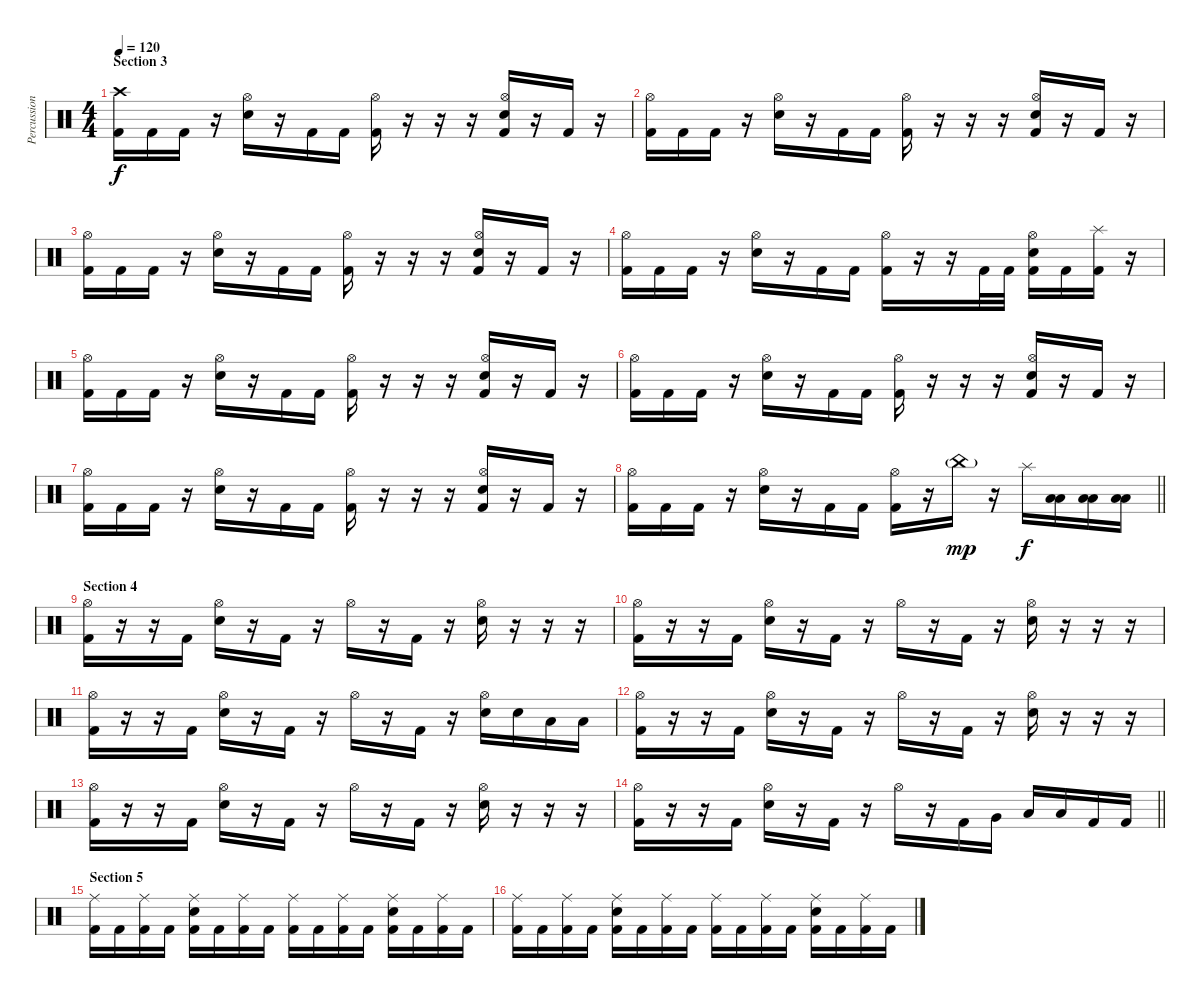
\track ("Percussion" "Percussion") {instrument percussion}
\staff {score}
\articulation defaults
\ts (4 4)
\section ("" "Section 3")
\tempo 120
\clef neutral
\ks c
("Crash high (hit)" "Kick (hit) 2").16{dy f} "Kick (hit) 2".16 "Kick (hit) 2".16 r.16 ("Hi-Hat (open)" "Electric Snare (hit)").16 r.16 "Kick (hit) 2".16 "Kick (hit) 2".16 ("Hi-Hat (open)" "Kick (hit) 2").16 r.16 r.16 r.16 ("Hi-Hat (open)" "Electric Snare (hit)" "Kick (hit) 2").16 r.16 "Kick (hit) 2".16 r.16 |
("Hi-Hat (open)" "Kick (hit) 2").16 "Kick (hit) 2".16 "Kick (hit) 2".16 r.16 ("Hi-Hat (open)" "Electric Snare (hit)").16 r.16 "Kick (hit) 2".16 "Kick (hit) 2".16 ("Hi-Hat (open)" "Kick (hit) 2").16 r.16 r.16 r.16 ("Hi-Hat (open)" "Electric Snare (hit)" "Kick (hit) 2").16 r.16 "Kick (hit) 2".16 r.16 |
("Hi-Hat (open)" "Kick (hit) 2").16 "Kick (hit) 2".16 "Kick (hit) 2".16 r.16 ("Hi-Hat (open)" "Electric Snare (hit)").16 r.16 "Kick (hit) 2".16 "Kick (hit) 2".16 ("Hi-Hat (open)" "Kick (hit) 2").16 r.16 r.16 r.16 ("Hi-Hat (open)" "Electric Snare (hit)" "Kick (hit) 2").16 r.16 "Kick (hit) 2".16 r.16 |
("Hi-Hat (open)" "Kick (hit) 2").16 "Kick (hit) 2".16 "Kick (hit) 2".16 r.16 ("Hi-Hat (open)" "Electric Snare (hit)").16 r.16 "Kick (hit) 2".16 "Kick (hit) 2".16 ("Hi-Hat (open)" "Kick (hit) 2").16 r.16 r.16 "Kick (hit) 2".32 "Kick (hit) 2".32 ("Hi-Hat (open)" "Electric Snare (hit)" "Kick (hit) 2").16 "Kick (hit) 2".16 ("Splash (hit)" "Kick (hit) 2").16 r.16 |
("Hi-Hat (open)" "Kick (hit) 2").16 "Kick (hit) 2".16 "Kick (hit) 2".16 r.16 ("Hi-Hat (open)" "Electric Snare (hit)").16 r.16 "Kick (hit) 2".16 "Kick (hit) 2".16 ("Hi-Hat (open)" "Kick (hit) 2").16 r.16 r.16 r.16 ("Hi-Hat (open)" "Electric Snare (hit)" "Kick (hit) 2").16 r.16 "Kick (hit) 2".16 r.16 |
("Hi-Hat (open)" "Kick (hit) 2").16 "Kick (hit) 2".16 "Kick (hit) 2".16 r.16 ("Hi-Hat (open)" "Electric Snare (hit)").16 r.16 "Kick (hit) 2".16 "Kick (hit) 2".16 ("Hi-Hat (open)" "Kick (hit) 2").16 r.16 r.16 r.16 ("Hi-Hat (open)" "Electric Snare (hit)" "Kick (hit) 2").16 r.16 "Kick (hit) 2".16 r.16 |
("Hi-Hat (open)" "Kick (hit) 2").16 "Kick (hit) 2".16 "Kick (hit) 2".16 r.16 ("Hi-Hat (open)" "Electric Snare (hit)").16 r.16 "Kick (hit) 2".16 "Kick (hit) 2".16 ("Hi-Hat (open)" "Kick (hit) 2").16 r.16 r.16 r.16 ("Hi-Hat (open)" "Electric Snare (hit)" "Kick (hit) 2").16 r.16 "Kick (hit) 2".16 r.16 |
\barLineRight lightlight
("Hi-Hat (open)" "Kick (hit) 2").16 "Kick (hit) 2".16 "Kick (hit) 2".16 r.16 ("Hi-Hat (open)" "Electric Snare (hit)").16 r.16 "Kick (hit) 2".16 "Kick (hit) 2".16 ("Hi-Hat (open)" "Kick (hit) 2").16 r.16 "China (hit)"{g}.16{dy mp} r.16 "Splash (hit)".16{dy f} ("Low Tom (hit)" "Low Tom (hit)").16 ("Low Tom (hit)" "Low Tom (hit)").16 ("Low Tom (hit)" "Low Tom (hit)").16 |
\section ("" "Section 4")
("Hi-Hat (open)" "Kick (hit) 2").16 r.16 r.16 "Kick (hit) 2".16 ("Hi-Hat (open)" "Electric Snare (hit)").16 r.16 "Kick (hit) 2".16 r.16 "Hi-Hat (open)".16 r.16 "Kick (hit) 2".16 r.16 ("Hi-Hat (open)" "Electric Snare (hit)").16 r.16 r.16 r.16 |
("Hi-Hat (open)" "Kick (hit) 2").16 r.16 r.16 "Kick (hit) 2".16 ("Hi-Hat (open)" "Electric Snare (hit)").16 r.16 "Kick (hit) 2".16 r.16 "Hi-Hat (open)".16 r.16 "Kick (hit) 2".16 r.16 ("Hi-Hat (open)" "Electric Snare (hit)").16 r.16 r.16 r.16 |
("Hi-Hat (open)" "Kick (hit) 2").16 r.16 r.16 "Kick (hit) 2".16 ("Hi-Hat (open)" "Electric Snare (hit)").16 r.16 "Kick (hit) 2".16 r.16 "Hi-Hat (open)".16 r.16 "Kick (hit) 2".16 r.16 ("Hi-Hat (open)" "Electric Snare (hit)").16 "Electric Snare (hit)".16 "Low Tom (hit)".16 "Low Tom (hit)".16 |
("Hi-Hat (open)" "Kick (hit) 2").16 r.16 r.16 "Kick (hit) 2".16 ("Hi-Hat (open)" "Electric Snare (hit)").16 r.16 "Kick (hit) 2".16 r.16 "Hi-Hat (open)".16 r.16 "Kick (hit) 2".16 r.16 ("Hi-Hat (open)" "Electric Snare (hit)").16 r.16 r.16 r.16 |
("Hi-Hat (open)" "Kick (hit) 2").16 r.16 r.16 "Kick (hit) 2".16 ("Hi-Hat (open)" "Electric Snare (hit)").16 r.16 "Kick (hit) 2".16 r.16 "Hi-Hat (open)".16 r.16 "Kick (hit) 2".16 r.16 ("Hi-Hat (open)" "Electric Snare (hit)").16 r.16 r.16 r.16 |
\barLineRight lightlight
("Hi-Hat (open)" "Kick (hit) 2").16 r.16 r.16 "Kick (hit) 2".16 ("Hi-Hat (open)" "Electric Snare (hit)").16 r.16 "Kick (hit) 2".16 r.16 "Hi-Hat (open)".16 r.16 "Kick (hit) 2".16 "Very Low Tom (hit)".16 "Low Tom (hit)".16 "Low Tom (hit)".16 "Kick (hit) 2".16 "Kick (hit) 2".16 |
\section ("" "Section 5")
("Ride (middle)" "Kick (hit) 2").16 "Kick (hit) 2".16 ("Ride (middle)" "Kick (hit) 2").16 "Kick (hit) 2".16 ("Ride (middle)" "Electric Snare (hit)" "Kick (hit) 2").16 "Kick (hit) 2".16 ("Ride (middle)" "Kick (hit) 2").16 "Kick (hit) 2".16 ("Ride (middle)" "Kick (hit) 2").16 "Kick (hit) 2".16 ("Ride (middle)" "Kick (hit) 2").16 "Kick (hit) 2".16 ("Ride (middle)" "Electric Snare (hit)" "Kick (hit) 2").16 "Kick (hit) 2".16 ("Ride (middle)" "Kick (hit) 2").16 "Kick (hit) 2".16 |
("Ride (middle)" "Kick (hit) 2").16 "Kick (hit) 2".16 ("Ride (middle)" "Kick (hit) 2").16 "Kick (hit) 2".16 ("Ride (middle)" "Electric Snare (hit)" "Kick (hit) 2").16 "Kick (hit) 2".16 ("Ride (middle)" "Kick (hit) 2").16 "Kick (hit) 2".16 ("Ride (middle)" "Kick (hit) 2").16 "Kick (hit) 2".16 ("Ride (middle)" "Kick (hit) 2").16 "Kick (hit) 2".16 ("Ride (middle)" "Electric Snare (hit)" "Kick (hit) 2").16 "Kick (hit) 2".16 ("Ride (middle)" "Kick (hit) 2").16 "Kick (hit) 2".16
